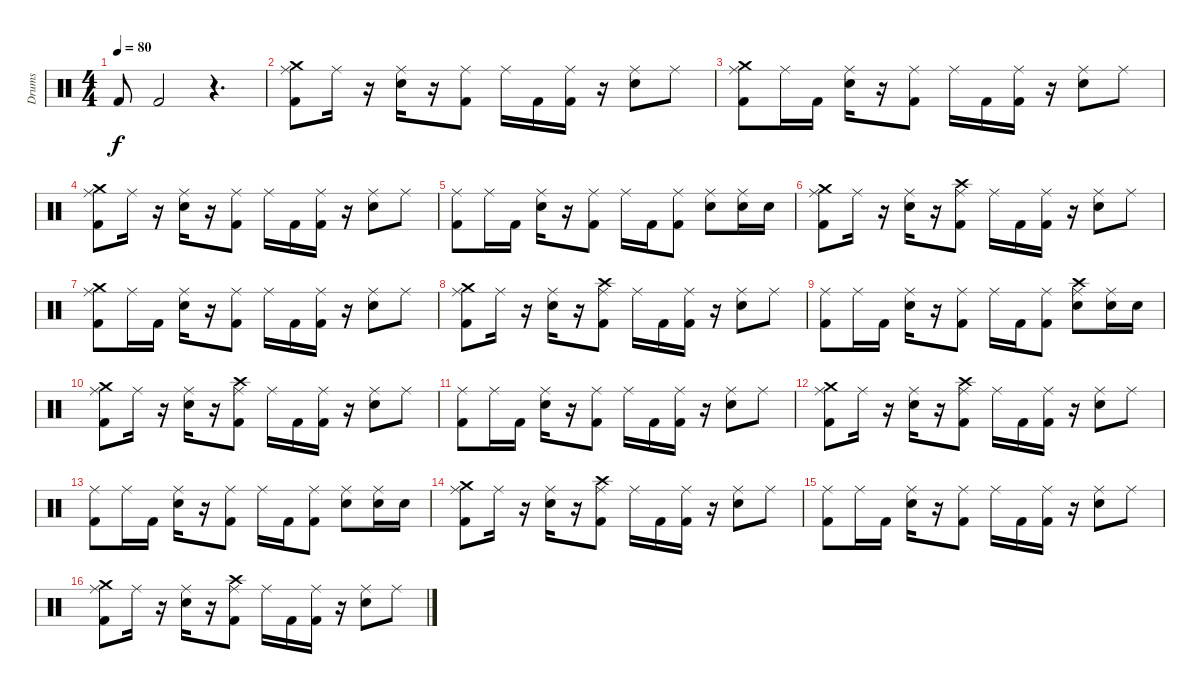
\track ("Drums" "Drums") {instrument percussion}
\staff {score}
\articulation defaults
\ts (4 4)
\tempo 80
\clef neutral
\ks c "Kick (hit) 2".8{dy f} "Kick (hit) 2".2
r.4{d} |
("Ride (middle)" "Crash medium (hit)" "Kick (hit) 2").8 "Ride (middle)".16 r.16 ("Ride (middle)" "Electric Snare (hit)").16 r.16 ("Ride (middle)" "Kick (hit) 2").8 "Ride (middle)".16 "Kick (hit) 2".16 ("Ride (middle)" "Kick (hit) 2").16 r.16 ("Ride (middle)" "Electric Snare (hit)").8 "Ride (middle)".8 |
("Ride (middle)" "Crash medium (hit)" "Kick (hit) 2").8 "Ride (middle)".16 "Kick (hit) 2".16 ("Ride (middle)" "Electric Snare (hit)").16 r.16 ("Ride (middle)" "Kick (hit) 2").8 "Ride (middle)".16 "Kick (hit) 2".16 ("Ride (middle)" "Kick (hit) 2").16 r.16 ("Ride (middle)" "Electric Snare (hit)").8 "Ride (middle)".8 |
("Ride (middle)" "Crash medium (hit)" "Kick (hit) 2").8 "Ride (middle)".16 r.16 ("Ride (middle)" "Electric Snare (hit)").16 r.16 ("Ride (middle)" "Kick (hit) 2").8 "Ride (middle)".16 "Kick (hit) 2".16 ("Ride (middle)" "Kick (hit) 2").16 r.16 ("Ride (middle)" "Electric Snare (hit)").8 "Ride (middle)".8 |
("Ride (middle)" "Kick (hit) 2").8 "Ride (middle)".16 "Kick (hit) 2".16 ("Ride (middle)" "Electric Snare (hit)").16 r.16 ("Ride (middle)" "Kick (hit) 2").8 "Ride (middle)".16 "Kick (hit) 2".16 ("Ride (middle)" "Kick (hit) 2").8 ("Ride (middle)" "Electric Snare (hit)").8 ("Ride (middle)" "Electric Snare (hit)").16 "Electric Snare (hit)".16 |
("Ride (middle)" "Crash medium (hit)" "Kick (hit) 2").8 "Ride (middle)".16 r.16 ("Ride (middle)" "Electric Snare (hit)").16 r.16 ("Ride (middle)" "Crash high (hit)" "Kick (hit) 2").8 "Ride (middle)".16 "Kick (hit) 2".16 ("Ride (middle)" "Kick (hit) 2").16 r.16 ("Ride (middle)" "Electric Snare (hit)").8 "Ride (middle)".8 |
("Ride (middle)" "Crash medium (hit)" "Kick (hit) 2").8 "Ride (middle)".16 "Kick (hit) 2".16 ("Ride (middle)" "Electric Snare (hit)").16 r.16 ("Ride (middle)" "Kick (hit) 2").8 "Ride (middle)".16 "Kick (hit) 2".16 ("Ride (middle)" "Kick (hit) 2").16 r.16 ("Ride (middle)" "Electric Snare (hit)").8 "Ride (middle)".8 |
("Ride (middle)" "Crash medium (hit)" "Kick (hit) 2").8 "Ride (middle)".16 r.16 ("Ride (middle)" "Electric Snare (hit)").16 r.16 ("Ride (middle)" "Crash high (hit)" "Kick (hit) 2").8 "Ride (middle)".16 "Kick (hit) 2".16 ("Ride (middle)" "Kick (hit) 2").16 r.16 ("Ride (middle)" "Electric Snare (hit)").8 "Ride (middle)".8 |
("Ride (middle)" "Kick (hit) 2").8 "Ride (middle)".16 "Kick (hit) 2".16 ("Ride (middle)" "Electric Snare (hit)").16 r.16 ("Ride (middle)" "Kick (hit) 2").8 "Ride (middle)".16 "Kick (hit) 2".16 ("Ride (middle)" "Kick (hit) 2").8 ("Ride (middle)" "Crash high (hit)" "Electric Snare (hit)").8 ("Ride (middle)" "Electric Snare (hit)").16 "Electric Snare (hit)".16 |
("Ride (middle)" "Crash medium (hit)" "Kick (hit) 2").8 "Ride (middle)".16 r.16 ("Ride (middle)" "Electric Snare (hit)").16 r.16 ("Ride (middle)" "Crash high (hit)" "Kick (hit) 2").8 "Ride (middle)".16 "Kick (hit) 2".16 ("Ride (middle)" "Kick (hit) 2").16 r.16 ("Ride (middle)" "Electric Snare (hit)").8 "Ride (middle)".8 |
("Ride (middle)" "Kick (hit) 2").8 "Ride (middle)".16 "Kick (hit) 2".16 ("Ride (middle)" "Electric Snare (hit)").16 r.16 ("Ride (middle)" "Kick (hit) 2").8 "Ride (middle)".16 "Kick (hit) 2".16 ("Ride (middle)" "Kick (hit) 2").16 r.16 ("Ride (middle)" "Electric Snare (hit)").8 "Ride (middle)".8 |
("Ride (middle)" "Crash medium (hit)" "Kick (hit) 2").8 "Ride (middle)".16 r.16 ("Ride (middle)" "Electric Snare (hit)").16 r.16 ("Ride (middle)" "Crash high (hit)" "Kick (hit) 2").8 "Ride (middle)".16 "Kick (hit) 2".16 ("Ride (middle)" "Kick (hit) 2").16 r.16 ("Ride (middle)" "Electric Snare (hit)").8 "Ride (middle)".8 |
("Ride (middle)" "Kick (hit) 2").8 "Ride (middle)".16 "Kick (hit) 2".16 ("Ride (middle)" "Electric Snare (hit)").16 r.16 ("Ride (middle)" "Kick (hit) 2").8 "Ride (middle)".16 "Kick (hit) 2".16 ("Ride (middle)" "Kick (hit) 2").8 ("Ride (middle)" "Electric Snare (hit)").8 ("Ride (middle)" "Electric Snare (hit)").16 "Electric Snare (hit)".16 |
("Ride (middle)" "Crash medium (hit)" "Kick (hit) 2").8 "Ride (middle)".16 r.16 ("Ride (middle)" "Electric Snare (hit)").16 r.16 ("Ride (middle)" "Crash high (hit)" "Kick (hit) 2").8 "Ride (middle)".16 "Kick (hit) 2".16 ("Ride (middle)" "Kick (hit) 2").16 r.16 ("Ride (middle)" "Electric Snare (hit)").8 "Ride (middle)".8 |
("Ride (middle)" "Kick (hit) 2").8 "Ride (middle)".16 "Kick (hit) 2".16 ("Ride (middle)" "Electric Snare (hit)").16 r.16 ("Ride (middle)" "Kick (hit) 2").8 "Ride (middle)".16 "Kick (hit) 2".16 ("Ride (middle)" "Kick (hit) 2").16 r.16 ("Ride (middle)" "Electric Snare (hit)").8 "Ride (middle)".8 |
("Ride (middle)" "Crash medium (hit)" "Kick (hit) 2").8 "Ride (middle)".16 r.16 ("Ride (middle)" "Electric Snare (hit)").16 r.16 ("Ride (middle)" "Crash high (hit)" "Kick (hit) 2").8 "Ride (middle)".16 "Kick (hit) 2".16 ("Ride (middle)" "Kick (hit) 2").16 r.16 ("Ride (middle)" "Electric Snare (hit)").8 "Ride (middle)".8
